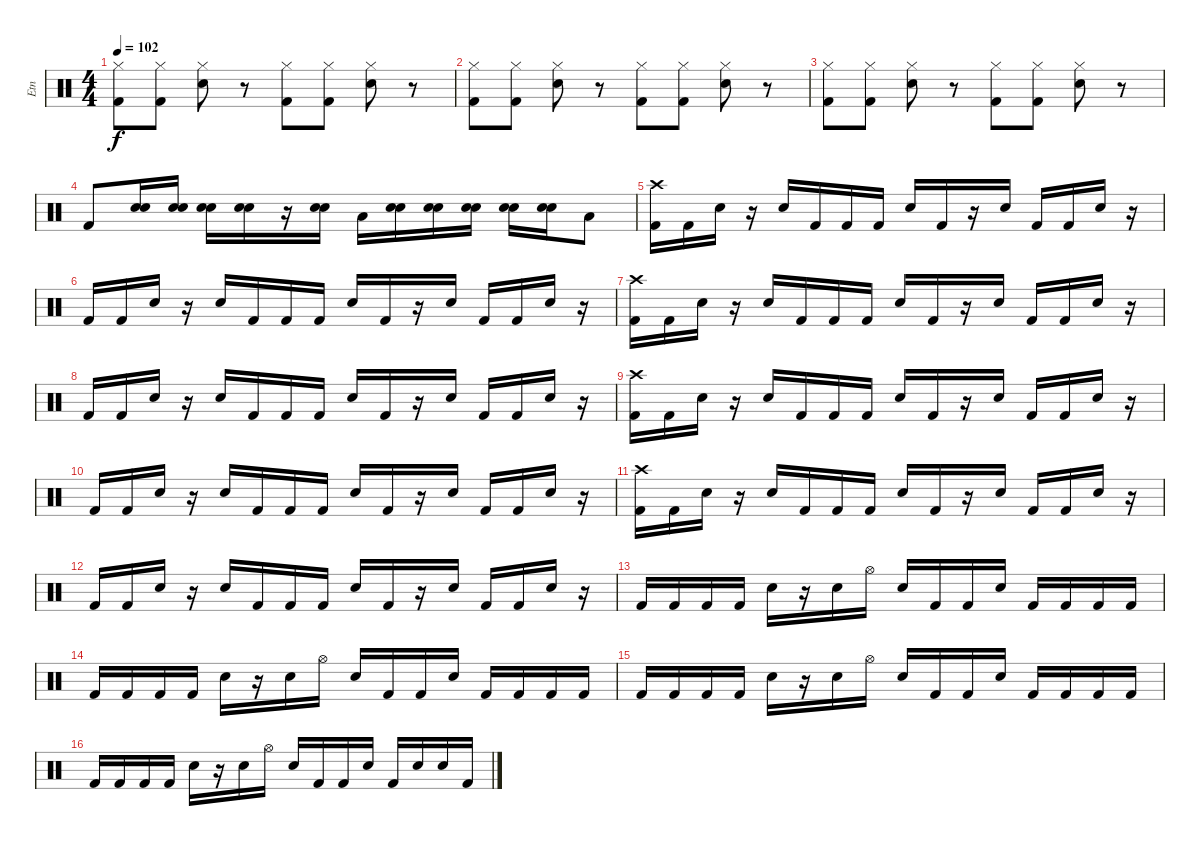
\track ("Etn" "Etn") {instrument percussion}
\staff {score}
\articulation defaults
\ts (4 4)
\tempo 102
\clef neutral
\ks c
("Hi-Hat (closed)" "Kick (hit) 2").8{dy f} ("Hi-Hat (closed)" "Kick (hit) 2").8 ("Hi-Hat (closed)" "Snare (hit) 2").8 r.8 ("Hi-Hat (closed)" "Kick (hit) 2").8 ("Hi-Hat (closed)" "Kick (hit) 2").8 ("Hi-Hat (closed)" "Snare (hit) 2").8 r.8 |
("Hi-Hat (closed)" "Kick (hit) 2").8 ("Hi-Hat (closed)" "Kick (hit) 2").8 ("Hi-Hat (closed)" "Snare (hit) 2").8 r.8 ("Hi-Hat (closed)" "Kick (hit) 2").8 ("Hi-Hat (closed)" "Kick (hit) 2").8 ("Hi-Hat (closed)" "Snare (hit) 2").8 r.8 |
("Hi-Hat (closed)" "Kick (hit) 2").8 ("Hi-Hat (closed)" "Kick (hit) 2").8 ("Hi-Hat (closed)" "Snare (hit) 2").8 r.8 ("Hi-Hat (closed)" "Kick (hit) 2").8 ("Hi-Hat (closed)" "Kick (hit) 2").8 ("Hi-Hat (closed)" "Snare (hit) 2").8 r.8 |
"Kick (hit) 2".8 ("Snare (hit) 2" "Snare (hit) 2").16 ("Snare (hit) 2" "Snare (hit) 2").16 ("Snare (hit) 2" "Snare (hit) 2").16 ("Snare (hit) 2" "Snare (hit) 2").16 r.16 ("Snare (hit) 2" "Snare (hit) 2").16 "Low Tom (hit)".16 ("Snare (hit) 2" "Snare (hit) 2").16 ("Snare (hit) 2" "Snare (hit) 2").16 ("Snare (hit) 2" "Snare (hit) 2").16 ("Snare (hit) 2" "Snare (hit) 2").16 ("Snare (hit) 2" "Snare (hit) 2").16 "Low Tom (hit)".8 |
("Crash high (hit)" "Kick (hit) 2").16 "Kick (hit) 2".16 "Snare (hit) 2".16 r.16 "Snare (hit) 2".16 "Kick (hit) 2".16 "Kick (hit) 2".16 "Kick (hit) 2".16 "Snare (hit) 2".16 "Kick (hit) 2".16 r.16 "Snare (hit) 2".16 "Kick (hit) 2".16 "Kick (hit) 2".16 "Snare (hit) 2".16 r.16 |
"Kick (hit) 2".16 "Kick (hit) 2".16 "Snare (hit) 2".16 r.16 "Snare (hit) 2".16 "Kick (hit) 2".16 "Kick (hit) 2".16 "Kick (hit) 2".16 "Snare (hit) 2".16 "Kick (hit) 2".16 r.16 "Snare (hit) 2".16 "Kick (hit) 2".16 "Kick (hit) 2".16 "Snare (hit) 2".16 r.16 |
("Crash high (hit)" "Kick (hit) 2").16 "Kick (hit) 2".16 "Snare (hit) 2".16 r.16 "Snare (hit) 2".16 "Kick (hit) 2".16 "Kick (hit) 2".16 "Kick (hit) 2".16 "Snare (hit) 2".16 "Kick (hit) 2".16 r.16 "Snare (hit) 2".16 "Kick (hit) 2".16 "Kick (hit) 2".16 "Snare (hit) 2".16 r.16 |
"Kick (hit) 2".16 "Kick (hit) 2".16 "Snare (hit) 2".16 r.16 "Snare (hit) 2".16 "Kick (hit) 2".16 "Kick (hit) 2".16 "Kick (hit) 2".16 "Snare (hit) 2".16 "Kick (hit) 2".16 r.16 "Snare (hit) 2".16 "Kick (hit) 2".16 "Kick (hit) 2".16 "Snare (hit) 2".16 r.16 |
("Crash high (hit)" "Kick (hit) 2").16 "Kick (hit) 2".16 "Snare (hit) 2".16 r.16 "Snare (hit) 2".16 "Kick (hit) 2".16 "Kick (hit) 2".16 "Kick (hit) 2".16 "Snare (hit) 2".16 "Kick (hit) 2".16 r.16 "Snare (hit) 2".16 "Kick (hit) 2".16 "Kick (hit) 2".16 "Snare (hit) 2".16 r.16 |
"Kick (hit) 2".16 "Kick (hit) 2".16 "Snare (hit) 2".16 r.16 "Snare (hit) 2".16 "Kick (hit) 2".16 "Kick (hit) 2".16 "Kick (hit) 2".16 "Snare (hit) 2".16 "Kick (hit) 2".16 r.16 "Snare (hit) 2".16 "Kick (hit) 2".16 "Kick (hit) 2".16 "Snare (hit) 2".16 r.16 |
("Crash high (hit)" "Kick (hit) 2").16 "Kick (hit) 2".16 "Snare (hit) 2".16 r.16 "Snare (hit) 2".16 "Kick (hit) 2".16 "Kick (hit) 2".16 "Kick (hit) 2".16 "Snare (hit) 2".16 "Kick (hit) 2".16 r.16 "Snare (hit) 2".16 "Kick (hit) 2".16 "Kick (hit) 2".16 "Snare (hit) 2".16 r.16 |
"Kick (hit) 2".16 "Kick (hit) 2".16 "Snare (hit) 2".16 r.16 "Snare (hit) 2".16 "Kick (hit) 2".16 "Kick (hit) 2".16 "Kick (hit) 2".16 "Snare (hit) 2".16 "Kick (hit) 2".16 r.16 "Snare (hit) 2".16 "Kick (hit) 2".16 "Kick (hit) 2".16 "Snare (hit) 2"{tr (38 64)}.16 r.16 |
"Kick (hit) 2".16 "Kick (hit) 2".16 "Kick (hit) 2".16 "Kick (hit) 2".16 "Snare (hit) 2".16 r.16 "Snare (hit) 2".16 "Hi-Hat (open)".16 "Snare (hit) 2".16 "Kick (hit) 2".16 "Kick (hit) 2".16 "Snare (hit) 2".16 "Kick (hit) 2".16 "Kick (hit) 2".16 "Kick (hit) 2".16 "Kick (hit) 2".16 |
"Kick (hit) 2".16 "Kick (hit) 2".16 "Kick (hit) 2".16 "Kick (hit) 2".16 "Snare (hit) 2".16 r.16 "Snare (hit) 2".16 "Hi-Hat (open)".16 "Snare (hit) 2".16 "Kick (hit) 2".16 "Kick (hit) 2".16 "Snare (hit) 2".16 "Kick (hit) 2".16 "Kick (hit) 2".16 "Kick (hit) 2".16 "Kick (hit) 2".16 |
"Kick (hit) 2".16 "Kick (hit) 2".16 "Kick (hit) 2".16 "Kick (hit) 2".16 "Snare (hit) 2".16 r.16 "Snare (hit) 2".16 "Hi-Hat (open)".16 "Snare (hit) 2".16 "Kick (hit) 2".16 "Kick (hit) 2".16 "Snare (hit) 2".16 "Kick (hit) 2".16 "Kick (hit) 2".16 "Kick (hit) 2".16 "Kick (hit) 2".16 |
"Kick (hit) 2".16 "Kick (hit) 2".16 "Kick (hit) 2".16 "Kick (hit) 2".16 "Snare (hit) 2".16 r.16 "Snare (hit) 2".16 "Hi-Hat (open)".16 "Snare (hit) 2".16 "Kick (hit) 2".16 "Kick (hit) 2".16 "Snare (hit) 2".16 "Kick (hit) 2".16 "Snare (hit) 2".16 "Snare (hit) 2".16 "Kick (hit) 2".16
